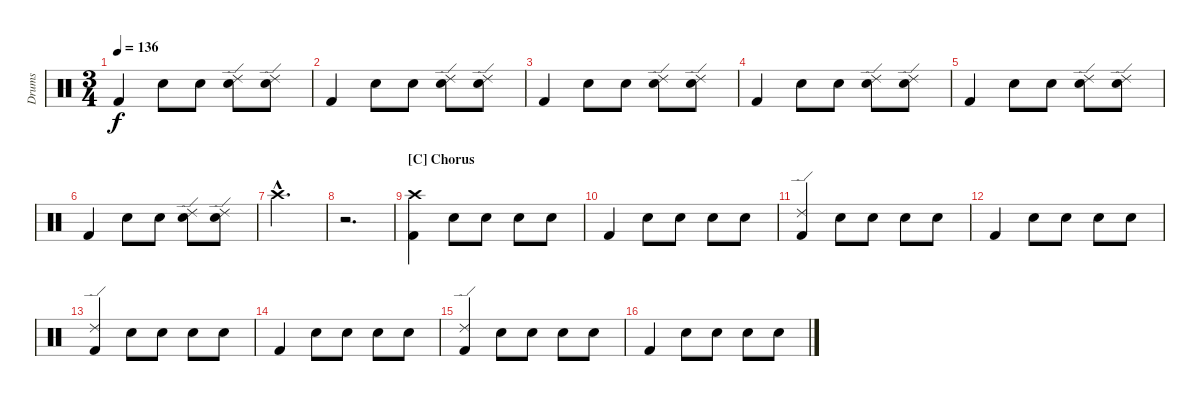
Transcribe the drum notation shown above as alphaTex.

\track ("Drums" "Drums") {instrument percussion}
\staff {score}
\articulation defaults
\ts (3 4)
\tempo 136
\clef neutral
\ks aminor "Kick (hit) 2".4{dy f} "Snare (hit) 2".8 "Snare (hit) 2".8
("Ride (edge) 2" "Snare (hit) 2").8 ("Ride (edge) 2" "Snare (hit) 2").8 |
"Kick (hit) 2".4 "Snare (hit) 2".8 "Snare (hit) 2".8 ("Ride (edge) 2" "Snare (hit) 2").8 ("Ride (edge) 2" "Snare (hit) 2").8 |
"Kick (hit) 2".4 "Snare (hit) 2".8 "Snare (hit) 2".8 ("Ride (edge) 2" "Snare (hit) 2").8 ("Ride (edge) 2" "Snare (hit) 2").8 |
"Kick (hit) 2".4 "Snare (hit) 2".8 "Snare (hit) 2".8 ("Ride (edge) 2" "Snare (hit) 2").8 ("Ride (edge) 2" "Snare (hit) 2").8 |
"Kick (hit) 2".4 "Snare (hit) 2".8 "Snare (hit) 2".8 ("Ride (edge) 2" "Snare (hit) 2").8 ("Ride (edge) 2" "Snare (hit) 2").8 |
"Kick (hit) 2".4 "Snare (hit) 2".8 "Snare (hit) 2".8 ("Ride (edge) 2" "Snare (hit) 2").8 ("Ride (edge) 2" "Snare (hit) 2").8 |
"Crash high (hit)"{hac}.2{d} |
r.2{d} |
\section ("" "[C] Chorus")
("Crash high (hit)" "Kick (hit) 2").4 "Snare (hit) 2".8 "Snare (hit) 2".8 "Snare (hit) 2".8 "Snare (hit) 2".8 |
"Kick (hit) 2".4 "Snare (hit) 2".8 "Snare (hit) 2".8 "Snare (hit) 2".8 "Snare (hit) 2".8 |
("Ride (edge) 2" "Kick (hit) 2").4 "Snare (hit) 2".8 "Snare (hit) 2".8 "Snare (hit) 2".8 "Snare (hit) 2".8 |
"Kick (hit) 2".4 "Snare (hit) 2".8 "Snare (hit) 2".8 "Snare (hit) 2".8 "Snare (hit) 2".8 |
("Ride (edge) 2" "Kick (hit) 2").4 "Snare (hit) 2".8 "Snare (hit) 2".8 "Snare (hit) 2".8 "Snare (hit) 2".8 |
"Kick (hit) 2".4 "Snare (hit) 2".8 "Snare (hit) 2".8 "Snare (hit) 2".8 "Snare (hit) 2".8 |
("Ride (edge) 2" "Kick (hit) 2").4 "Snare (hit) 2".8 "Snare (hit) 2".8 "Snare (hit) 2".8 "Snare (hit) 2".8 |
"Kick (hit) 2".4 "Snare (hit) 2".8 "Snare (hit) 2".8 "Snare (hit) 2".8 "Snare (hit) 2".8
